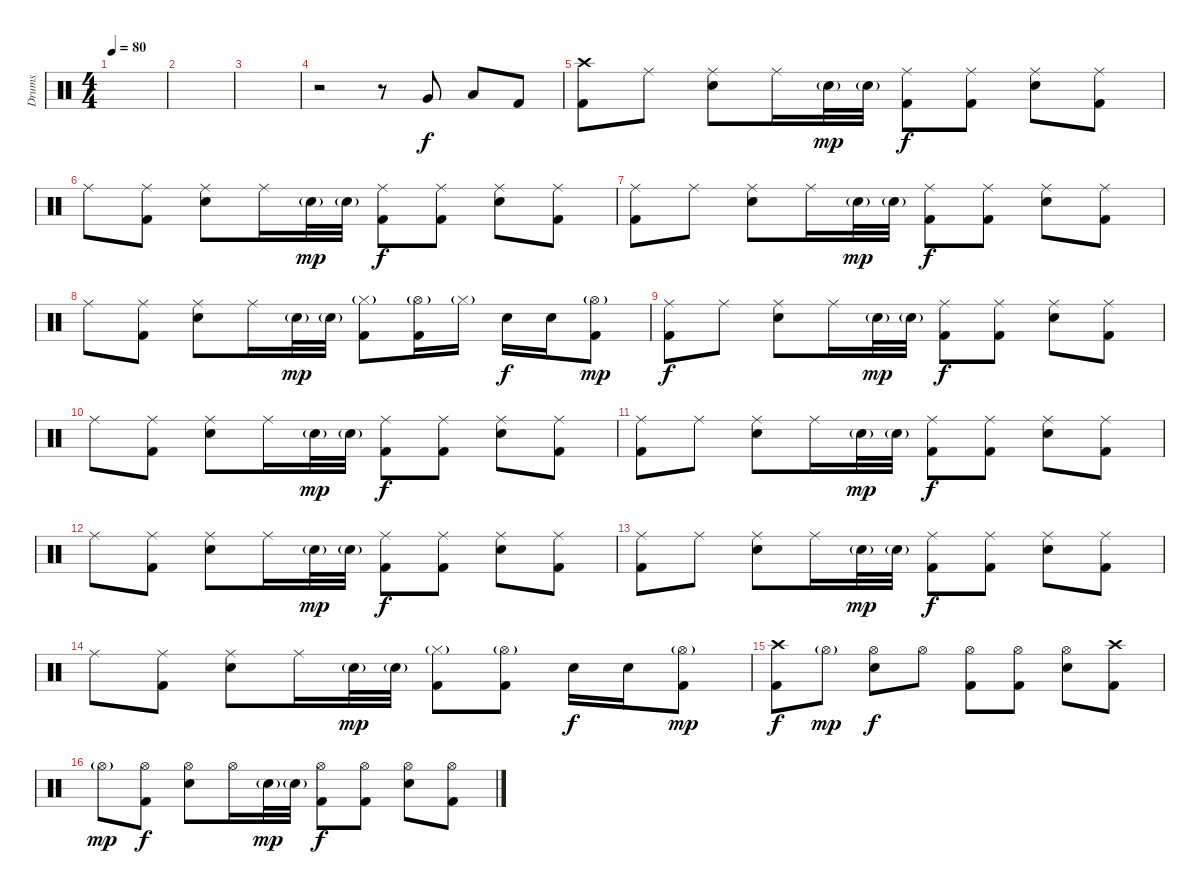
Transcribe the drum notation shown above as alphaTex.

\track ("Drums" "Drums") {instrument percussion}
\staff {score}
\articulation defaults
\ts (4 4)
\tempo 80
\clef neutral
\ks c
|
|
|
r.2 r.8 "Very Low Tom (hit)".8 "Low Floor Tom (hit)".8 "Kick (hit) 2".8 |
("Crash high (hit)" "Kick (hit) 2").8 "Ride (middle)".8 ("Ride (middle)" "Snare (hit) 2").8 "Ride (middle)".16 "Snare (hit) 2"{g}.32{dy mp} "Snare (hit) 2"{g}.32 ("Ride (middle)" "Kick (hit) 2").8{dy f} ("Ride (middle)" "Kick (hit) 2").8 ("Ride (middle)" "Snare (hit) 2").8 ("Ride (middle)" "Kick (hit) 2").8 |
"Ride (middle)".8 ("Ride (middle)" "Kick (hit) 2").8 ("Ride (middle)" "Snare (hit) 2").8 "Ride (middle)".16 "Snare (hit) 2"{g}.32{dy mp} "Snare (hit) 2"{g}.32 ("Ride (middle)" "Kick (hit) 2").8{dy f} ("Ride (middle)" "Kick (hit) 2").8 ("Ride (middle)" "Snare (hit) 2").8 ("Ride (middle)" "Kick (hit) 2").8 |
("Ride (middle)" "Kick (hit) 2").8 "Ride (middle)".8 ("Ride (middle)" "Snare (hit) 2").8 "Ride (middle)".16 "Snare (hit) 2"{g}.32{dy mp} "Snare (hit) 2"{g}.32 ("Ride (middle)" "Kick (hit) 2").8{dy f} ("Ride (middle)" "Kick (hit) 2").8 ("Ride (middle)" "Snare (hit) 2").8 ("Ride (middle)" "Kick (hit) 2").8 |
"Ride (middle)".8 ("Ride (middle)" "Kick (hit) 2").8 ("Ride (middle)" "Snare (hit) 2").8 "Ride (middle)".16 "Snare (hit) 2"{g}.32{dy mp} "Snare (hit) 2"{g}.32 ("Hi-Hat (closed)"{g} "Kick (hit) 2").8 ("Hi-Hat (open)"{g} "Kick (hit) 2").16 "Hi-Hat (closed)"{g}.16 "Snare (hit) 2".16{dy f} "Snare (hit) 2".16 ("Hi-Hat (open)"{g} "Kick (hit) 2").8{dy mp} |
("Ride (middle)" "Kick (hit) 2").8{dy f} "Ride (middle)".8 ("Ride (middle)" "Snare (hit) 2").8 "Ride (middle)".16 "Snare (hit) 2"{g}.32{dy mp} "Snare (hit) 2"{g}.32 ("Ride (middle)" "Kick (hit) 2").8{dy f} ("Ride (middle)" "Kick (hit) 2").8 ("Ride (middle)" "Snare (hit) 2").8 ("Ride (middle)" "Kick (hit) 2").8 |
"Ride (middle)".8 ("Ride (middle)" "Kick (hit) 2").8 ("Ride (middle)" "Snare (hit) 2").8 "Ride (middle)".16 "Snare (hit) 2"{g}.32{dy mp} "Snare (hit) 2"{g}.32 ("Ride (middle)" "Kick (hit) 2").8{dy f} ("Ride (middle)" "Kick (hit) 2").8 ("Ride (middle)" "Snare (hit) 2").8 ("Ride (middle)" "Kick (hit) 2").8 |
("Ride (middle)" "Kick (hit) 2").8 "Ride (middle)".8 ("Ride (middle)" "Snare (hit) 2").8 "Ride (middle)".16 "Snare (hit) 2"{g}.32{dy mp} "Snare (hit) 2"{g}.32 ("Ride (middle)" "Kick (hit) 2").8{dy f} ("Ride (middle)" "Kick (hit) 2").8 ("Ride (middle)" "Snare (hit) 2").8 ("Ride (middle)" "Kick (hit) 2").8 |
"Ride (middle)".8 ("Ride (middle)" "Kick (hit) 2").8 ("Ride (middle)" "Snare (hit) 2").8 "Ride (middle)".16 "Snare (hit) 2"{g}.32{dy mp} "Snare (hit) 2"{g}.32 ("Ride (middle)" "Kick (hit) 2").8{dy f} ("Ride (middle)" "Kick (hit) 2").8 ("Ride (middle)" "Snare (hit) 2").8 ("Ride (middle)" "Kick (hit) 2").8 |
("Ride (middle)" "Kick (hit) 2").8 "Ride (middle)".8 ("Ride (middle)" "Snare (hit) 2").8 "Ride (middle)".16 "Snare (hit) 2"{g}.32{dy mp} "Snare (hit) 2"{g}.32 ("Ride (middle)" "Kick (hit) 2").8{dy f} ("Ride (middle)" "Kick (hit) 2").8 ("Ride (middle)" "Snare (hit) 2").8 ("Ride (middle)" "Kick (hit) 2").8 |
"Ride (middle)".8 ("Ride (middle)" "Kick (hit) 2").8 ("Ride (middle)" "Snare (hit) 2").8 "Ride (middle)".16 "Snare (hit) 2"{g}.32{dy mp} "Snare (hit) 2"{g}.32 ("Hi-Hat (closed)"{g} "Kick (hit) 2").8 ("Hi-Hat (open)"{g} "Kick (hit) 2").8 "Snare (hit) 2".16{dy f} "Snare (hit) 2".16 ("Hi-Hat (open)"{g} "Kick (hit) 2").8{dy mp} |
("Crash high (hit)" "Kick (hit) 2").8{dy f} "Hi-Hat (open)"{g}.8{dy mp} ("Hi-Hat (open)" "Snare (hit) 2").8{dy f} "Hi-Hat (open)".8 ("Hi-Hat (open)" "Kick (hit) 2").8 ("Hi-Hat (open)" "Kick (hit) 2").8 ("Hi-Hat (open)" "Snare (hit) 2").8 ("Crash high (hit)" "Kick (hit) 2").8 |
"Hi-Hat (open)"{g}.8{dy mp} ("Hi-Hat (open)" "Kick (hit) 2").8{dy f} ("Hi-Hat (open)" "Snare (hit) 2").8 "Hi-Hat (open)".16 "Snare (hit) 2"{g}.32{dy mp} "Snare (hit) 2"{g}.32 ("Hi-Hat (open)" "Kick (hit) 2").8{dy f} ("Hi-Hat (open)" "Kick (hit) 2").8 ("Hi-Hat (open)" "Snare (hit) 2").8 ("Hi-Hat (open)" "Kick (hit) 2").8
